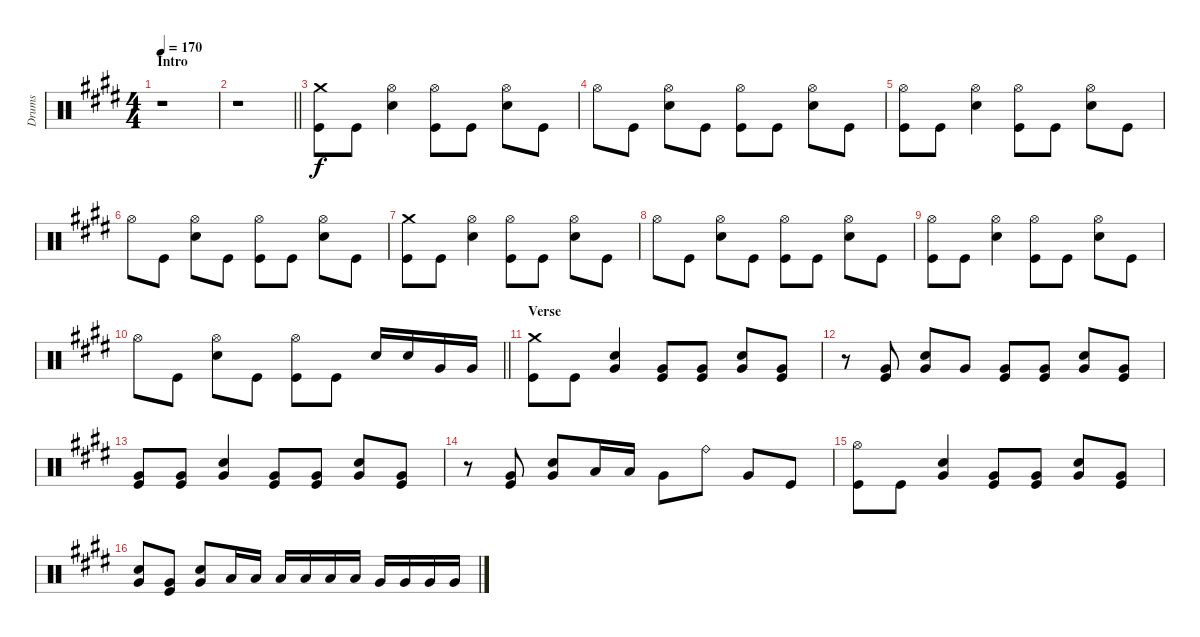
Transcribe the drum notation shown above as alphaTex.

\track ("Drums" "Drums") {instrument percussion}
\staff {score}
\articulation defaults
\ts (4 4)
\section ("" "Intro")
\tempo 170
\clef neutral
\ks e
r.1{dy f} |
\barLineRight lightlight
r.1 |
("Kick (hit)" "Crash medium (hit)").8 "Kick (hit)".8 ("Snare (hit) 2" "Hi-Hat (open)").4 ("Kick (hit)" "Hi-Hat (open)").8 "Kick (hit)".8 ("Snare (hit) 2" "Hi-Hat (open)").8 "Kick (hit)".8 |
"Hi-Hat (open)".8 "Kick (hit)".8 ("Snare (hit) 2" "Hi-Hat (open)").8 "Kick (hit)".8 ("Hi-Hat (open)" "Kick (hit)").8 "Kick (hit)".8 ("Snare (hit) 2" "Hi-Hat (open)").8 "Kick (hit)".8 |
("Kick (hit)" "Hi-Hat (open)").8 "Kick (hit)".8 ("Snare (hit) 2" "Hi-Hat (open)").4 ("Kick (hit)" "Hi-Hat (open)").8 "Kick (hit)".8 ("Snare (hit) 2" "Hi-Hat (open)").8 "Kick (hit)".8 |
"Hi-Hat (open)".8 "Kick (hit)".8 ("Snare (hit) 2" "Hi-Hat (open)").8 "Kick (hit)".8 ("Hi-Hat (open)" "Kick (hit)").8 "Kick (hit)".8 ("Snare (hit) 2" "Hi-Hat (open)").8 "Kick (hit)".8 |
("Kick (hit)" "Crash medium (hit)").8 "Kick (hit)".8 ("Snare (hit) 2" "Hi-Hat (open)").4 ("Kick (hit)" "Hi-Hat (open)").8 "Kick (hit)".8 ("Snare (hit) 2" "Hi-Hat (open)").8 "Kick (hit)".8 |
"Hi-Hat (open)".8 "Kick (hit)".8 ("Snare (hit) 2" "Hi-Hat (open)").8 "Kick (hit)".8 ("Hi-Hat (open)" "Kick (hit)").8 "Kick (hit)".8 ("Snare (hit) 2" "Hi-Hat (open)").8 "Kick (hit)".8 |
("Kick (hit)" "Hi-Hat (open)").8 "Kick (hit)".8 ("Snare (hit) 2" "Hi-Hat (open)").4 ("Kick (hit)" "Hi-Hat (open)").8 "Kick (hit)".8 ("Snare (hit) 2" "Hi-Hat (open)").8 "Kick (hit)".8 |
\barLineRight lightlight "Hi-Hat (open)".8 "Kick (hit)".8
("Snare (hit) 2" "Hi-Hat (open)").8 "Kick (hit)".8 ("Hi-Hat (open)" "Kick (hit)").8 "Kick (hit)".8 "Snare (hit) 2".16 "Snare (hit) 2".16 "Very Low Tom (hit)".16 "Very Low Tom (hit)".16 |
\section ("" "Verse")
("Kick (hit)" "Crash medium (hit)").8 "Kick (hit)".8 ("Snare (hit) 2" "Very Low Tom (hit)").4 ("Kick (hit)" "Very Low Tom (hit)").8 ("Kick (hit)" "Very Low Tom (hit)").8 ("Snare (hit) 2" "Very Low Tom (hit)").8 ("Very Low Tom (hit)" "Kick (hit)").8 |
r.8 ("Kick (hit)" "Very Low Tom (hit)").8 ("Very Low Tom (hit)" "Snare (hit) 2").8 "Very Low Tom (hit)".8 ("Kick (hit)" "Very Low Tom (hit)").8 ("Kick (hit)" "Very Low Tom (hit)").8 ("Very Low Tom (hit)" "Snare (hit) 2").8 ("Kick (hit)" "Very Low Tom (hit)").8 |
("Kick (hit)" "Very Low Tom (hit)").8 ("Kick (hit)" "Very Low Tom (hit)").8 ("Very Low Tom (hit)" "Snare (hit) 2").4 ("Kick (hit)" "Very Low Tom (hit)").8 ("Kick (hit)" "Very Low Tom (hit)").8 ("Very Low Tom (hit)" "Snare (hit) 2").8 ("Kick (hit)" "Very Low Tom (hit)").8 |
r.8 ("Kick (hit)" "Very Low Tom (hit)").8 ("Very Low Tom (hit)" "Snare (hit) 2").8 "Low Tom (hit)".16 "Low Tom (hit)".16 "Very Low Tom (hit)".8 "Ride (bell)".8 "Very Low Tom (hit)".8 "Kick (hit)".8 |
("Kick (hit)" "Hi-Hat (open)").8 "Kick (hit)".8 ("Snare (hit) 2" "Very Low Tom (hit)").4 ("Kick (hit)" "Very Low Tom (hit)").8 ("Kick (hit)" "Very Low Tom (hit)").8 ("Snare (hit) 2" "Very Low Tom (hit)").8 ("Very Low Tom (hit)" "Kick (hit)").8 |
("Very Low Tom (hit)" "Snare (hit) 2").8 ("Kick (hit)" "Very Low Tom (hit)").8 ("Very Low Tom (hit)" "Snare (hit) 2").8 "Low Tom (hit)".16 "Low Tom (hit)".16 "Low Tom (hit)".16 "Low Tom (hit)".16 "Low Tom (hit)".16 "Low Tom (hit)".16 "Very Low Tom (hit)".16 "Very Low Tom (hit)".16 "Very Low Tom (hit)".16 "Very Low Tom (hit)".16
